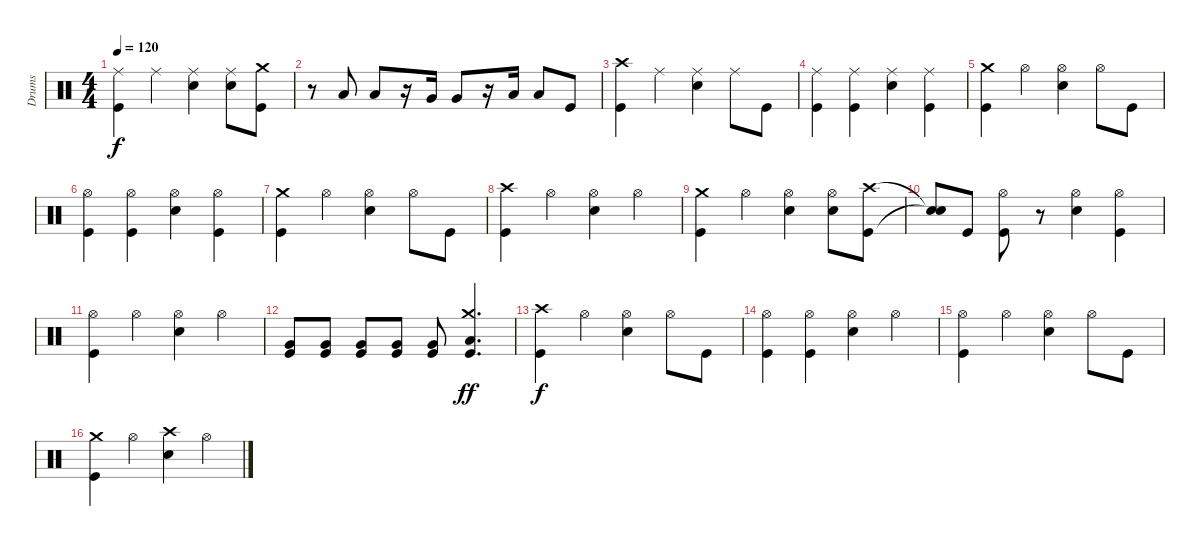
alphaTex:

\track ("Drums" "Drums") {instrument percussion}
\staff {score}
\articulation defaults
\ts (4 4)
\tempo 120
\clef neutral
\ks c
("Ride (middle)" "Kick (hit)").4{dy f} "Ride (middle)".4 ("Ride (middle)" "Snare (hit) 2").4 ("Ride (middle)" "Snare (hit) 2").8 ("Crash medium (hit)" "Kick (hit)").8 |
r.8 "Low Tom (hit)".8 "Low Tom (hit)".8 r.16 "Very Low Tom (hit)".16 "Very Low Tom (hit)".8 r.16 "Low Floor Tom (hit)".16 "Low Floor Tom (hit)".8 "Kick (hit)".8 |
("Crash high (hit)" "Kick (hit)").4 "Ride (middle)".4 ("Ride (middle)" "Snare (hit) 2").4 "Ride (middle)".8 "Kick (hit)".8 |
("Ride (middle)" "Kick (hit)").4 ("Ride (middle)" "Kick (hit)").4 ("Ride (middle)" "Snare (hit) 2").4 ("Ride (middle)" "Kick (hit)").4 |
("Crash medium (hit)" "Kick (hit)").4 "Hi-Hat (open)".4 ("Hi-Hat (open)" "Snare (hit) 2").4 "Hi-Hat (open)".8 "Kick (hit)".8 |
("Hi-Hat (open)" "Kick (hit)").4 ("Hi-Hat (open)" "Kick (hit)").4 ("Hi-Hat (open)" "Snare (hit) 2").4 ("Hi-Hat (open)" "Kick (hit)").4 |
("Crash medium (hit)" "Kick (hit)").4 "Hi-Hat (open)".4 ("Hi-Hat (open)" "Snare (hit) 2").4 "Hi-Hat (open)".8 "Kick (hit)".8 |
("Crash high (hit)" "Kick (hit)").4 "Hi-Hat (open)".4 ("Hi-Hat (open)" "Snare (hit) 2").4 "Hi-Hat (open)".4 |
("Crash medium (hit)" "Kick (hit)").4 "Hi-Hat (open)".4 ("Hi-Hat (open)" "Snare (hit) 2").4 ("Hi-Hat (open)" "Snare (hit) 2").8 ("Crash high (hit)" "Kick (hit)").8 |
("Snare (hit)"{t} "Snare (hit)"{t}).8 "Kick (hit)".8 ("Hi-Hat (open)" "Kick (hit)").8 r.8 ("Hi-Hat (open)" "Snare (hit) 2").4 ("Hi-Hat (open)" "Kick (hit)").4 |
("Hi-Hat (open)" "Kick (hit)").4 "Hi-Hat (open)".4 ("Hi-Hat (open)" "Snare (hit) 2").4 "Hi-Hat (open)".4 |
("Very Low Tom (hit)" "Kick (hit)").8 ("Very Low Tom (hit)" "Kick (hit)").8 ("Very Low Tom (hit)" "Kick (hit)").8 ("Very Low Tom (hit)" "Kick (hit)").8 ("Very Low Tom (hit)" "Kick (hit)").8 ("Crash medium (hit)" "Kick (hit)" "Low Tom (hit)").4{d dy ff} |
("Crash high (hit)" "Kick (hit)").4{dy f} "Hi-Hat (open)".4 ("Hi-Hat (open)" "Snare (hit) 2").4 "Hi-Hat (open)".8 "Kick (hit)".8 |
("Hi-Hat (open)" "Kick (hit)").4 ("Hi-Hat (open)" "Kick (hit)").4 ("Hi-Hat (open)" "Snare (hit) 2").4 "Hi-Hat (open)".4 |
("Hi-Hat (open)" "Kick (hit)").4 "Hi-Hat (open)".4 ("Hi-Hat (open)" "Snare (hit) 2").4 "Hi-Hat (open)".8 "Kick (hit)".8 |
("Crash medium (hit)" "Kick (hit)").4 "Hi-Hat (open)".4 ("Crash high (hit)" "Snare (hit) 2").4 "Hi-Hat (open)".4
